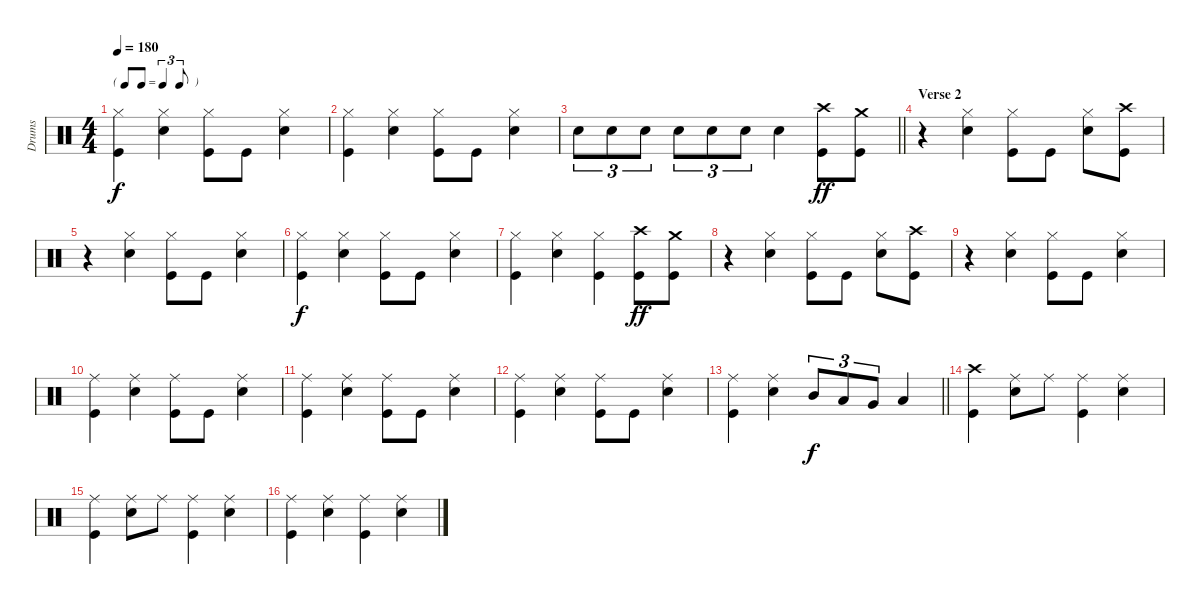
\track ("Drums" "Drums") {instrument percussion}
\staff {score}
\articulation defaults
\ts (4 4)
\tf triplet8th
\tempo 180
\clef neutral
\ks c
("Hi-Hat (closed)" "Kick (hit)").4{dy f} ("Snare (hit) 2" "Hi-Hat (closed)").4 ("Kick (hit)" "Hi-Hat (closed)").8 "Kick (hit)".8 ("Snare (hit) 2" "Hi-Hat (closed)").4 |
("Hi-Hat (closed)" "Kick (hit)").4 ("Snare (hit) 2" "Hi-Hat (closed)").4 ("Kick (hit)" "Hi-Hat (closed)").8 "Kick (hit)".8 ("Snare (hit) 2" "Hi-Hat (closed)").4 |
\barLineRight lightlight "Snare (hit) 2".8{tu (3 2)} "Snare (hit) 2".8{tu (3 2)} "Snare (hit) 2".8{tu (3 2)} "Snare (hit) 2".8{tu (3 2)} "Snare (hit) 2".8{tu (3 2)} "Snare (hit) 2".8{tu (3 2)} "Snare (hit) 2".4
("Kick (hit)" "Crash high (hit)").8{dy ff} ("Crash medium (hit)" "Kick (hit)").8 |
\section ("" "Verse 2")
r.4 ("Snare (hit) 2" "Hi-Hat (closed)").4 ("Kick (hit)" "Hi-Hat (closed)").8 "Kick (hit)".8 ("Snare (hit) 2" "Hi-Hat (closed)").8 ("Crash high (hit)" "Kick (hit)").8 |
r.4 ("Snare (hit) 2" "Hi-Hat (closed)").4 ("Kick (hit)" "Hi-Hat (closed)").8 "Kick (hit)".8 ("Snare (hit) 2" "Hi-Hat (closed)").4 |
("Hi-Hat (closed)" "Kick (hit)").4{dy f} ("Snare (hit) 2" "Hi-Hat (closed)").4 ("Kick (hit)" "Hi-Hat (closed)").8 "Kick (hit)".8 ("Snare (hit) 2" "Hi-Hat (closed)").4 |
("Hi-Hat (closed)" "Kick (hit)").4 ("Snare (hit) 2" "Hi-Hat (closed)").4 ("Kick (hit)" "Hi-Hat (closed)").4 ("Kick (hit)" "Crash high (hit)").8{dy ff} ("Crash medium (hit)" "Kick (hit)").8 |
r.4 ("Snare (hit) 2" "Hi-Hat (closed)").4 ("Kick (hit)" "Hi-Hat (closed)").8 "Kick (hit)".8 ("Snare (hit) 2" "Hi-Hat (closed)").8 ("Crash high (hit)" "Kick (hit)").8 |
r.4 ("Snare (hit) 2" "Hi-Hat (closed)").4 ("Kick (hit)" "Hi-Hat (closed)").8 "Kick (hit)".8 ("Snare (hit) 2" "Hi-Hat (closed)").4 |
("Kick (hit)" "Ride (middle)").4 ("Ride (middle)" "Snare (hit) 2").4 ("Kick (hit)" "Ride (middle)").8 "Kick (hit)".8 ("Ride (middle)" "Snare (hit) 2").4 |
("Kick (hit)" "Ride (middle)").4 ("Ride (middle)" "Snare (hit) 2").4 ("Kick (hit)" "Ride (middle)").8 "Kick (hit)".8 ("Ride (middle)" "Snare (hit) 2").4 |
("Kick (hit)" "Ride (middle)").4 ("Ride (middle)" "Snare (hit) 2").4 ("Kick (hit)" "Ride (middle)").8 "Kick (hit)".8 ("Ride (middle)" "Snare (hit) 2").4 |
\barLineRight lightlight
("Kick (hit)" "Ride (middle)").4 ("Ride (middle)" "Snare (hit) 2").4 "Mid Tom (hit)".8{tu (3 2) dy f} "Low Tom (hit)".8{tu (3 2)} "Very Low Tom (hit)".8{tu (3 2)} "Low Floor Tom (hit)".4 |
("Crash high (hit)" "Kick (hit)").4 ("Snare (hit) 2" "Ride (middle)").8 "Ride (middle)".8 ("Ride (middle)" "Kick (hit)").4 ("Snare (hit) 2" "Ride (middle)").4 |
("Ride (middle)" "Kick (hit)").4 ("Snare (hit) 2" "Ride (middle)").8 "Ride (middle)".8 ("Ride (middle)" "Kick (hit)").4 ("Snare (hit) 2" "Ride (middle)").4 |
("Ride (middle)" "Kick (hit)").4 ("Snare (hit) 2" "Ride (middle)").4 ("Ride (middle)" "Kick (hit)").4 ("Snare (hit) 2" "Ride (middle)").4
